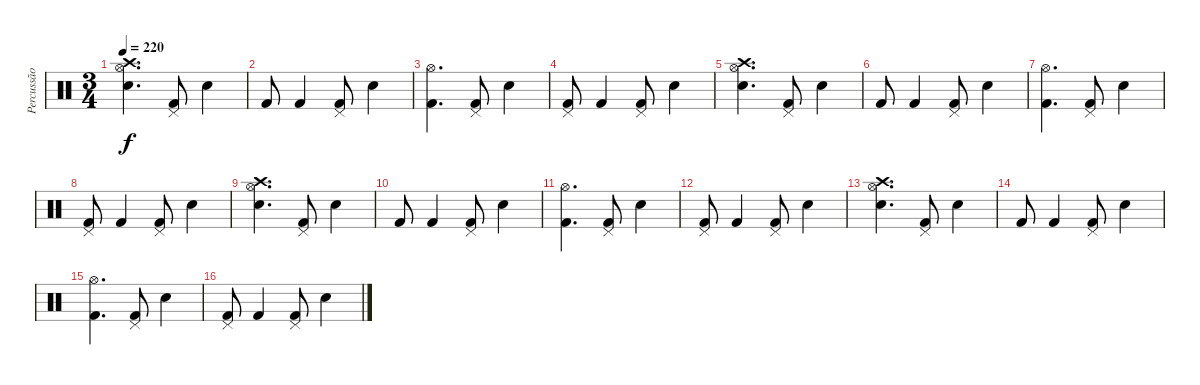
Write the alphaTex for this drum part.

\track ("Percussão" "Percussão") {instrument percussion}
\staff {score}
\articulation defaults
\ts (3 4)
\tempo 220
\clef neutral
\ks c
("Hi-Hat (open)" "Snare (hit) 2" "Crash high (hit)").4{d dy f} ("Pedal Hi-Hat (hit)" "Kick (hit) 2").8 "Snare (hit) 2".4 |
"Kick (hit) 2".8 "Kick (hit) 2".4 ("Pedal Hi-Hat (hit)" "Kick (hit) 2").8 "Snare (hit) 2".4 |
("Hi-Hat (open)" "Kick (hit) 2").4{d} ("Pedal Hi-Hat (hit)" "Kick (hit) 2").8 "Snare (hit) 2".4 |
("Pedal Hi-Hat (hit)" "Kick (hit) 2").8 "Kick (hit) 2".4 ("Pedal Hi-Hat (hit)" "Kick (hit) 2").8 "Snare (hit) 2".4 |
("Hi-Hat (open)" "Snare (hit) 2" "Crash high (hit)").4{d} ("Pedal Hi-Hat (hit)" "Kick (hit) 2").8 "Snare (hit) 2".4 |
"Kick (hit) 2".8 "Kick (hit) 2".4 ("Pedal Hi-Hat (hit)" "Kick (hit) 2").8 "Snare (hit) 2".4 |
("Hi-Hat (open)" "Kick (hit) 2").4{d} ("Pedal Hi-Hat (hit)" "Kick (hit) 2").8 "Snare (hit) 2".4 |
("Pedal Hi-Hat (hit)" "Kick (hit) 2").8 "Kick (hit) 2".4 ("Pedal Hi-Hat (hit)" "Kick (hit) 2").8 "Snare (hit) 2".4 |
("Hi-Hat (open)" "Snare (hit) 2" "Crash high (hit)").4{d} ("Pedal Hi-Hat (hit)" "Kick (hit) 2").8 "Snare (hit) 2".4 |
"Kick (hit) 2".8 "Kick (hit) 2".4 ("Pedal Hi-Hat (hit)" "Kick (hit) 2").8 "Snare (hit) 2".4 |
("Hi-Hat (open)" "Kick (hit) 2").4{d} ("Pedal Hi-Hat (hit)" "Kick (hit) 2").8 "Snare (hit) 2".4 |
("Pedal Hi-Hat (hit)" "Kick (hit) 2").8 "Kick (hit) 2".4 ("Pedal Hi-Hat (hit)" "Kick (hit) 2").8 "Snare (hit) 2".4 |
("Hi-Hat (open)" "Snare (hit) 2" "Crash high (hit)").4{d} ("Pedal Hi-Hat (hit)" "Kick (hit) 2").8 "Snare (hit) 2".4 |
"Kick (hit) 2".8 "Kick (hit) 2".4 ("Pedal Hi-Hat (hit)" "Kick (hit) 2").8 "Snare (hit) 2".4 |
("Hi-Hat (open)" "Kick (hit) 2").4{d} ("Pedal Hi-Hat (hit)" "Kick (hit) 2").8 "Snare (hit) 2".4 |
("Pedal Hi-Hat (hit)" "Kick (hit) 2").8 "Kick (hit) 2".4 ("Pedal Hi-Hat (hit)" "Kick (hit) 2").8 "Snare (hit) 2".4
